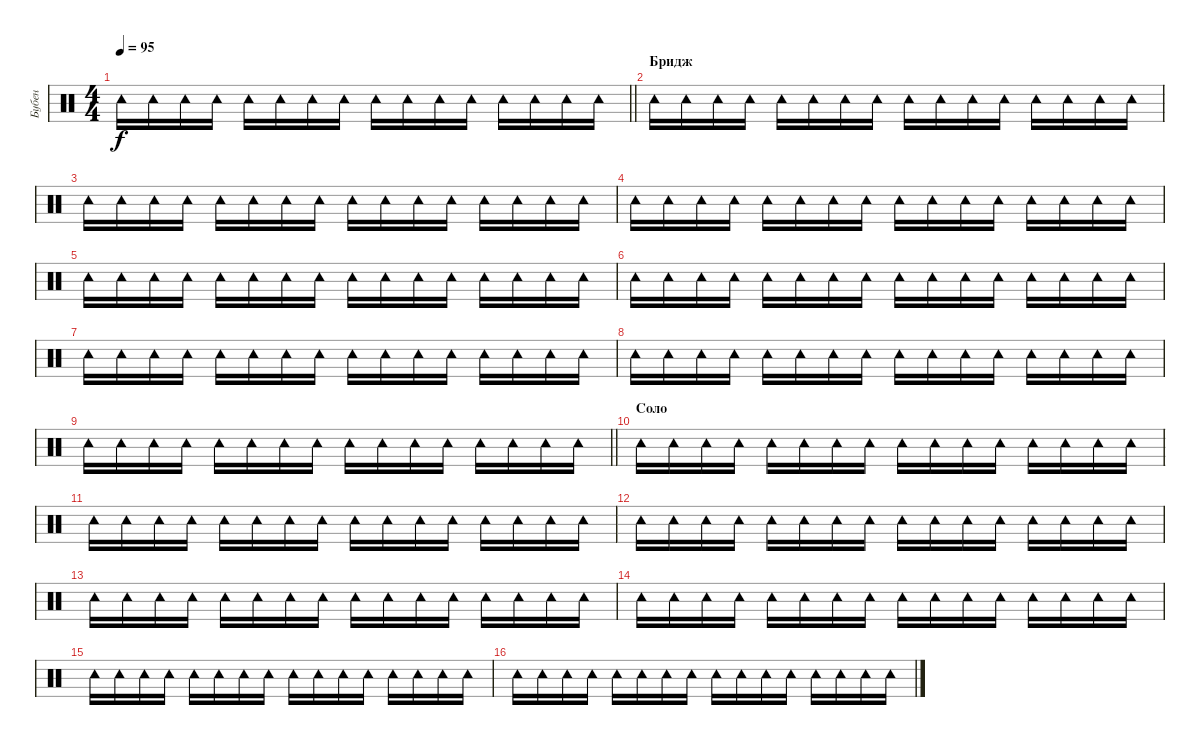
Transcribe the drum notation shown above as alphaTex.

\track ("Бубен" "Бубен") {instrument percussion}
\staff {score}
\articulation defaults
\ts (4 4)
\tempo 95
\clef neutral
\barLineRight lightlight
\ks c "Tambourine (hit)".16{dy f} "Tambourine (hit)".16 "Tambourine (hit)".16 "Tambourine (hit)".16 "Tambourine (hit)".16 "Tambourine (hit)".16 "Tambourine (hit)".16 "Tambourine (hit)".16 "Tambourine (hit)".16 "Tambourine (hit)".16 "Tambourine (hit)".16 "Tambourine (hit)".16 "Tambourine (hit)".16 "Tambourine (hit)".16 "Tambourine (hit)".16 "Tambourine (hit)".16
|
\section ("" "Бридж")
"Tambourine (hit)".16 "Tambourine (hit)".16 "Tambourine (hit)".16 "Tambourine (hit)".16 "Tambourine (hit)".16 "Tambourine (hit)".16 "Tambourine (hit)".16 "Tambourine (hit)".16 "Tambourine (hit)".16 "Tambourine (hit)".16 "Tambourine (hit)".16 "Tambourine (hit)".16 "Tambourine (hit)".16 "Tambourine (hit)".16 "Tambourine (hit)".16 "Tambourine (hit)".16 |
"Tambourine (hit)".16 "Tambourine (hit)".16 "Tambourine (hit)".16 "Tambourine (hit)".16 "Tambourine (hit)".16 "Tambourine (hit)".16 "Tambourine (hit)".16 "Tambourine (hit)".16 "Tambourine (hit)".16 "Tambourine (hit)".16 "Tambourine (hit)".16 "Tambourine (hit)".16 "Tambourine (hit)".16 "Tambourine (hit)".16 "Tambourine (hit)".16 "Tambourine (hit)".16 |
"Tambourine (hit)".16 "Tambourine (hit)".16 "Tambourine (hit)".16 "Tambourine (hit)".16 "Tambourine (hit)".16 "Tambourine (hit)".16 "Tambourine (hit)".16 "Tambourine (hit)".16 "Tambourine (hit)".16 "Tambourine (hit)".16 "Tambourine (hit)".16 "Tambourine (hit)".16 "Tambourine (hit)".16 "Tambourine (hit)".16 "Tambourine (hit)".16 "Tambourine (hit)".16 |
"Tambourine (hit)".16 "Tambourine (hit)".16 "Tambourine (hit)".16 "Tambourine (hit)".16 "Tambourine (hit)".16 "Tambourine (hit)".16 "Tambourine (hit)".16 "Tambourine (hit)".16 "Tambourine (hit)".16 "Tambourine (hit)".16 "Tambourine (hit)".16 "Tambourine (hit)".16 "Tambourine (hit)".16 "Tambourine (hit)".16 "Tambourine (hit)".16 "Tambourine (hit)".16 |
"Tambourine (hit)".16 "Tambourine (hit)".16 "Tambourine (hit)".16 "Tambourine (hit)".16 "Tambourine (hit)".16 "Tambourine (hit)".16 "Tambourine (hit)".16 "Tambourine (hit)".16 "Tambourine (hit)".16 "Tambourine (hit)".16 "Tambourine (hit)".16 "Tambourine (hit)".16 "Tambourine (hit)".16 "Tambourine (hit)".16 "Tambourine (hit)".16 "Tambourine (hit)".16 |
"Tambourine (hit)".16 "Tambourine (hit)".16 "Tambourine (hit)".16 "Tambourine (hit)".16 "Tambourine (hit)".16 "Tambourine (hit)".16 "Tambourine (hit)".16 "Tambourine (hit)".16 "Tambourine (hit)".16 "Tambourine (hit)".16 "Tambourine (hit)".16 "Tambourine (hit)".16 "Tambourine (hit)".16 "Tambourine (hit)".16 "Tambourine (hit)".16 "Tambourine (hit)".16 |
"Tambourine (hit)".16 "Tambourine (hit)".16 "Tambourine (hit)".16 "Tambourine (hit)".16 "Tambourine (hit)".16 "Tambourine (hit)".16 "Tambourine (hit)".16 "Tambourine (hit)".16 "Tambourine (hit)".16 "Tambourine (hit)".16 "Tambourine (hit)".16 "Tambourine (hit)".16 "Tambourine (hit)".16 "Tambourine (hit)".16 "Tambourine (hit)".16 "Tambourine (hit)".16 |
\barLineRight lightlight "Tambourine (hit)".16 "Tambourine (hit)".16 "Tambourine (hit)".16 "Tambourine (hit)".16 "Tambourine (hit)".16 "Tambourine (hit)".16 "Tambourine (hit)".16 "Tambourine (hit)".16 "Tambourine (hit)".16 "Tambourine (hit)".16 "Tambourine (hit)".16 "Tambourine (hit)".16 "Tambourine (hit)".16 "Tambourine (hit)".16 "Tambourine (hit)".16 "Tambourine (hit)".16
|
\section ("" "Соло")
"Tambourine (hit)".16 "Tambourine (hit)".16 "Tambourine (hit)".16 "Tambourine (hit)".16 "Tambourine (hit)".16 "Tambourine (hit)".16 "Tambourine (hit)".16 "Tambourine (hit)".16 "Tambourine (hit)".16 "Tambourine (hit)".16 "Tambourine (hit)".16 "Tambourine (hit)".16 "Tambourine (hit)".16 "Tambourine (hit)".16 "Tambourine (hit)".16 "Tambourine (hit)".16 |
"Tambourine (hit)".16 "Tambourine (hit)".16 "Tambourine (hit)".16 "Tambourine (hit)".16 "Tambourine (hit)".16 "Tambourine (hit)".16 "Tambourine (hit)".16 "Tambourine (hit)".16 "Tambourine (hit)".16 "Tambourine (hit)".16 "Tambourine (hit)".16 "Tambourine (hit)".16 "Tambourine (hit)".16 "Tambourine (hit)".16 "Tambourine (hit)".16 "Tambourine (hit)".16 |
"Tambourine (hit)".16 "Tambourine (hit)".16 "Tambourine (hit)".16 "Tambourine (hit)".16 "Tambourine (hit)".16 "Tambourine (hit)".16 "Tambourine (hit)".16 "Tambourine (hit)".16 "Tambourine (hit)".16 "Tambourine (hit)".16 "Tambourine (hit)".16 "Tambourine (hit)".16 "Tambourine (hit)".16 "Tambourine (hit)".16 "Tambourine (hit)".16 "Tambourine (hit)".16 |
"Tambourine (hit)".16 "Tambourine (hit)".16 "Tambourine (hit)".16 "Tambourine (hit)".16 "Tambourine (hit)".16 "Tambourine (hit)".16 "Tambourine (hit)".16 "Tambourine (hit)".16 "Tambourine (hit)".16 "Tambourine (hit)".16 "Tambourine (hit)".16 "Tambourine (hit)".16 "Tambourine (hit)".16 "Tambourine (hit)".16 "Tambourine (hit)".16 "Tambourine (hit)".16 |
"Tambourine (hit)".16 "Tambourine (hit)".16 "Tambourine (hit)".16 "Tambourine (hit)".16 "Tambourine (hit)".16 "Tambourine (hit)".16 "Tambourine (hit)".16 "Tambourine (hit)".16 "Tambourine (hit)".16 "Tambourine (hit)".16 "Tambourine (hit)".16 "Tambourine (hit)".16 "Tambourine (hit)".16 "Tambourine (hit)".16 "Tambourine (hit)".16 "Tambourine (hit)".16 |
"Tambourine (hit)".16 "Tambourine (hit)".16 "Tambourine (hit)".16 "Tambourine (hit)".16 "Tambourine (hit)".16 "Tambourine (hit)".16 "Tambourine (hit)".16 "Tambourine (hit)".16 "Tambourine (hit)".16 "Tambourine (hit)".16 "Tambourine (hit)".16 "Tambourine (hit)".16 "Tambourine (hit)".16 "Tambourine (hit)".16 "Tambourine (hit)".16 "Tambourine (hit)".16 |
"Tambourine (hit)".16 "Tambourine (hit)".16 "Tambourine (hit)".16 "Tambourine (hit)".16 "Tambourine (hit)".16 "Tambourine (hit)".16 "Tambourine (hit)".16 "Tambourine (hit)".16 "Tambourine (hit)".16 "Tambourine (hit)".16 "Tambourine (hit)".16 "Tambourine (hit)".16 "Tambourine (hit)".16 "Tambourine (hit)".16 "Tambourine (hit)".16 "Tambourine (hit)".16
